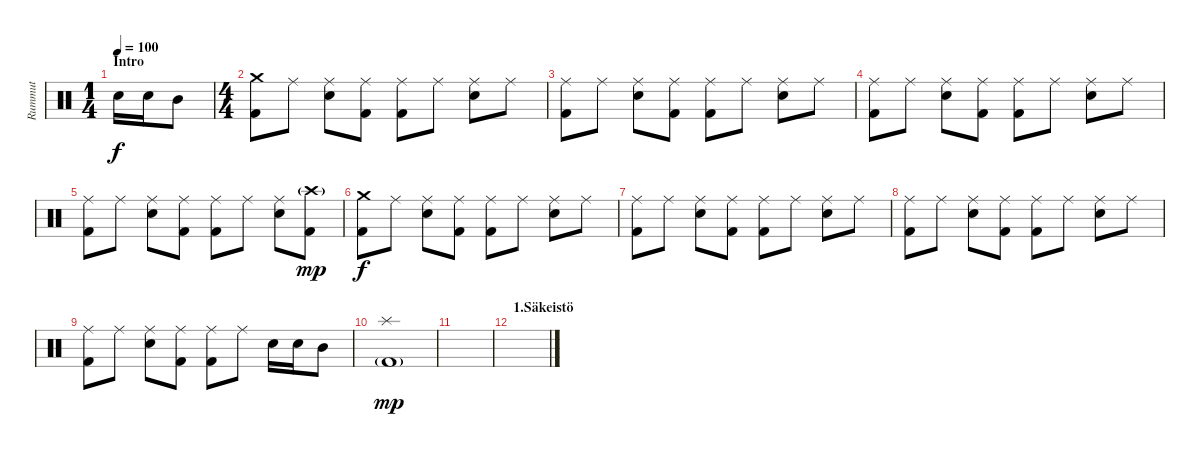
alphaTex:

\track ("Rummut" "Rummut") {instrument percussion}
\staff {score}
\articulation defaults
\ts (1 4)
\section ("" "Intro")
\tempo 100
\clef neutral
\ks c "Snare (hit) 2".16{dy f} "Snare (hit) 2".16 "Mid Tom (hit)".8
|
\ts (4 4)
("Crash medium (hit)" "Kick (hit) 2").8 "Ride (middle)".8 ("Ride (middle)" "Snare (hit) 2").8 ("Ride (middle)" "Kick (hit) 2").8 ("Ride (middle)" "Kick (hit) 2").8 "Ride (middle)".8 ("Ride (middle)" "Snare (hit) 2").8 "Ride (middle)".8 |
("Ride (middle)" "Kick (hit) 2").8 "Ride (middle)".8 ("Ride (middle)" "Snare (hit) 2").8 ("Ride (middle)" "Kick (hit) 2").8 ("Ride (middle)" "Kick (hit) 2").8 "Ride (middle)".8 ("Ride (middle)" "Snare (hit) 2").8 "Ride (middle)".8 |
("Ride (middle)" "Kick (hit) 2").8 "Ride (middle)".8 ("Ride (middle)" "Snare (hit) 2").8 ("Ride (middle)" "Kick (hit) 2").8 ("Ride (middle)" "Kick (hit) 2").8 "Ride (middle)".8 ("Ride (middle)" "Snare (hit) 2").8 "Ride (middle)".8 |
("Ride (middle)" "Kick (hit) 2").8 "Ride (middle)".8 ("Ride (middle)" "Snare (hit) 2").8 ("Ride (middle)" "Kick (hit) 2").8 ("Ride (middle)" "Kick (hit) 2").8 "Ride (middle)".8 ("Ride (middle)" "Snare (hit) 2").8 ("Crash high (hit)"{g} "Kick (hit) 2").8{dy mp} |
("Crash medium (hit)" "Kick (hit) 2").8{dy f} "Ride (middle)".8 ("Ride (middle)" "Snare (hit) 2").8 ("Ride (middle)" "Kick (hit) 2").8 ("Ride (middle)" "Kick (hit) 2").8 "Ride (middle)".8 ("Ride (middle)" "Snare (hit) 2").8 "Ride (middle)".8 |
("Ride (middle)" "Kick (hit) 2").8 "Ride (middle)".8 ("Ride (middle)" "Snare (hit) 2").8 ("Ride (middle)" "Kick (hit) 2").8 ("Ride (middle)" "Kick (hit) 2").8 "Ride (middle)".8 ("Ride (middle)" "Snare (hit) 2").8 "Ride (middle)".8 |
("Ride (middle)" "Kick (hit) 2").8 "Ride (middle)".8 ("Ride (middle)" "Snare (hit) 2").8 ("Ride (middle)" "Kick (hit) 2").8 ("Ride (middle)" "Kick (hit) 2").8 "Ride (middle)".8 ("Ride (middle)" "Snare (hit) 2").8 "Ride (middle)".8 |
("Ride (middle)" "Kick (hit) 2").8 "Ride (middle)".8 ("Ride (middle)" "Snare (hit) 2").8 ("Ride (middle)" "Kick (hit) 2").8 ("Ride (middle)" "Kick (hit) 2").8 "Ride (middle)".8 "Snare (hit) 2".16 "Snare (hit) 2".16 "Mid Tom (hit)".8 |
("Splash (hit)" "Kick (hit) 2"{g}).1{dy mp} |
|
\section ("" "1.Säkeistö")
